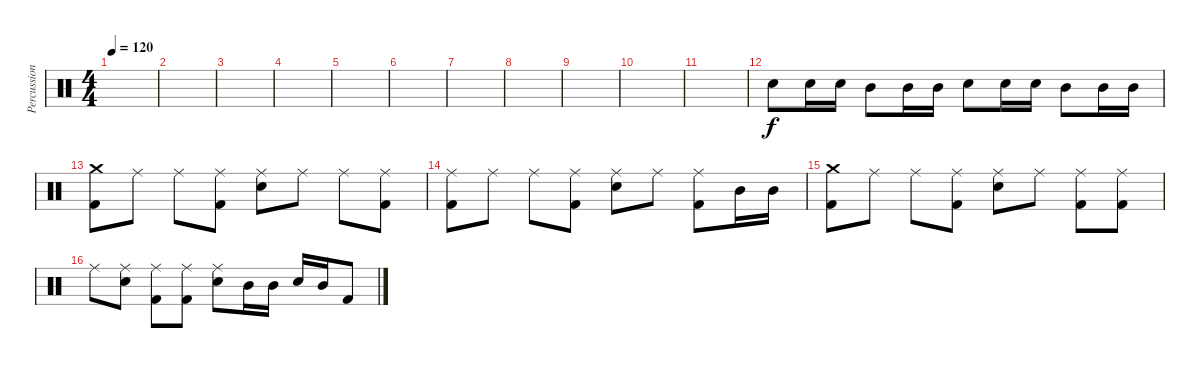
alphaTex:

\track ("Percussions" "Percussion") {instrument percussion}
\staff {score}
\articulation defaults
\ts (4 4)
\tempo 120
\clef neutral
\ks c
|
|
|
|
|
|
|
|
|
|
|
"Snare (hit) 2".8 "Snare (hit) 2".16 "Snare (hit) 2".16 "Mid Tom (hit)".8 "Mid Tom (hit)".16 "Mid Tom (hit)".16 "Snare (hit) 2".8 "Snare (hit) 2".16 "Snare (hit) 2".16 "Mid Tom (hit)".8 "Mid Tom (hit)".16 "Mid Tom (hit)".16 |
("Crash medium (hit)" "Kick (hit) 2").8 "Ride (middle)".8 "Ride (middle)".8 ("Ride (middle)" "Kick (hit) 2").8 ("Ride (middle)" "Electric Snare (hit)").8 "Ride (middle)".8 "Ride (middle)".8 ("Ride (middle)" "Kick (hit) 2").8 |
("Ride (middle)" "Kick (hit) 2").8 "Ride (middle)".8 "Ride (middle)".8 ("Ride (middle)" "Kick (hit) 2").8 ("Ride (middle)" "Electric Snare (hit)").8 "Ride (middle)".8 ("Ride (middle)" "Kick (hit) 2").8 "Mid Tom (hit)".16 "Mid Tom (hit)".16 |
("Crash medium (hit)" "Kick (hit) 2").8 "Ride (middle)".8 "Ride (middle)".8 ("Ride (middle)" "Kick (hit) 2").8 ("Ride (middle)" "Electric Snare (hit)").8 "Ride (middle)".8 ("Ride (middle)" "Kick (hit) 2").8 ("Ride (middle)" "Kick (hit) 2").8 |
"Ride (middle)".8 ("Ride (middle)" "Electric Snare (hit)").8 ("Ride (middle)" "Kick (hit) 2").8 ("Ride (middle)" "Kick (hit) 2").8 ("Ride (middle)" "Electric Snare (hit)").8 "Mid Tom (hit)".16 "Mid Tom (hit)".16 "Electric Snare (hit)".16 "Mid Tom (hit)".16 "Kick (hit) 2".8
